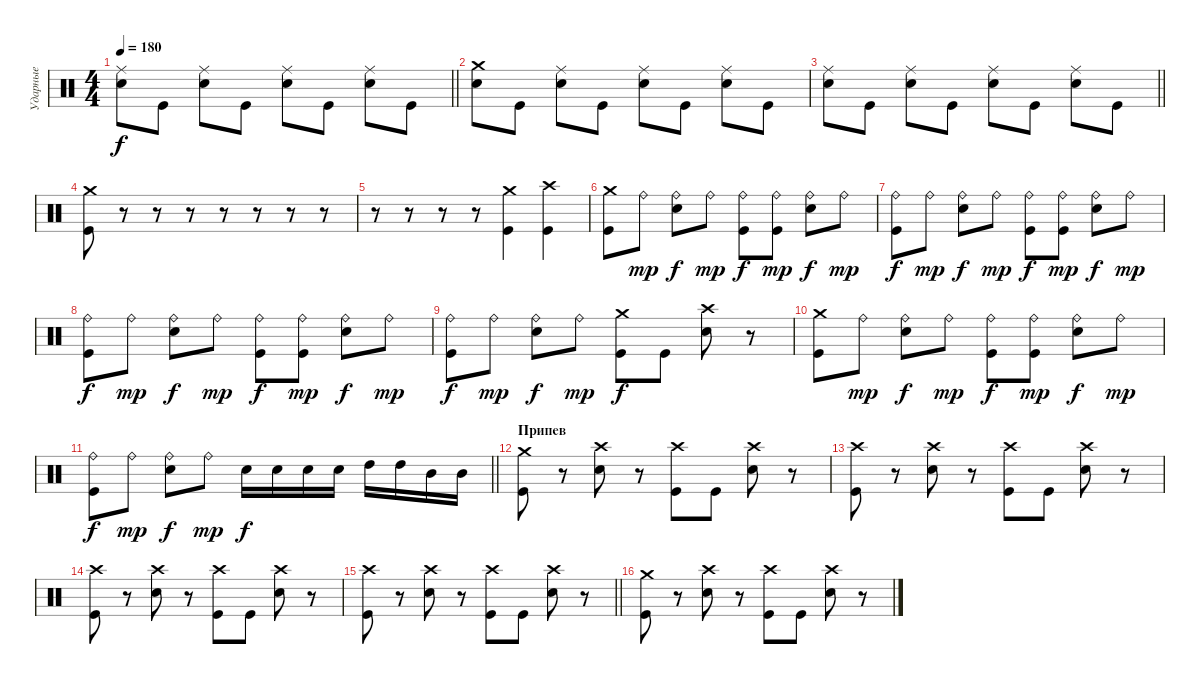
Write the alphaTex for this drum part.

\track ("Ударные" "Ударные") {instrument percussion}
\staff {score}
\articulation defaults
\ts (4 4)
\tempo 180
\clef neutral
\barLineRight lightlight
\ks c
("Ride (middle)" "Electric Snare (hit)").8{dy f} "Kick (hit)".8 ("Ride (middle)" "Electric Snare (hit)").8 "Kick (hit)".8 ("Ride (middle)" "Electric Snare (hit)").8 "Kick (hit)".8 ("Ride (middle)" "Electric Snare (hit)").8 "Kick (hit)".8 |
("Crash medium (hit)" "Electric Snare (hit)").8 "Kick (hit)".8 ("Ride (middle)" "Electric Snare (hit)").8 "Kick (hit)".8 ("Ride (middle)" "Electric Snare (hit)").8 "Kick (hit)".8 ("Ride (middle)" "Electric Snare (hit)").8 "Kick (hit)".8 |
\barLineRight lightlight
("Ride (middle)" "Electric Snare (hit)").8 "Kick (hit)".8 ("Ride (middle)" "Electric Snare (hit)").8 "Kick (hit)".8 ("Ride (middle)" "Electric Snare (hit)").8 "Kick (hit)".8 ("Ride (middle)" "Electric Snare (hit)").8 "Kick (hit)".8 |
\section ("" " ")
("Crash medium (hit)" "Kick (hit)").8 r.8 r.8 r.8 r.8 r.8 r.8 r.8 |
r.8 r.8 r.8 r.8 ("Crash medium (hit)" "Kick (hit)").4 ("Crash high (hit)" "Kick (hit)").4 |
("Crash medium (hit)" "Kick (hit)").8 "Ride (bell)".8{dy mp} ("Ride (bell)" "Electric Snare (hit)").8{dy f} "Ride (bell)".8{dy mp} ("Ride (bell)" "Kick (hit)").8{dy f} ("Ride (bell)" "Kick (hit)").8{dy mp} ("Ride (bell)" "Electric Snare (hit)").8{dy f} "Ride (bell)".8{dy mp} |
("Ride (bell)" "Kick (hit)").8{dy f} "Ride (bell)".8{dy mp} ("Ride (bell)" "Electric Snare (hit)").8{dy f} "Ride (bell)".8{dy mp} ("Ride (bell)" "Kick (hit)").8{dy f} ("Ride (bell)" "Kick (hit)").8{dy mp} ("Ride (bell)" "Electric Snare (hit)").8{dy f} "Ride (bell)".8{dy mp} |
("Ride (bell)" "Kick (hit)").8{dy f} "Ride (bell)".8{dy mp} ("Ride (bell)" "Electric Snare (hit)").8{dy f} "Ride (bell)".8{dy mp} ("Ride (bell)" "Kick (hit)").8{dy f} ("Ride (bell)" "Kick (hit)").8{dy mp} ("Ride (bell)" "Electric Snare (hit)").8{dy f} "Ride (bell)".8{dy mp} |
("Ride (bell)" "Kick (hit)").8{dy f} "Ride (bell)".8{dy mp} ("Ride (bell)" "Electric Snare (hit)").8{dy f} "Ride (bell)".8{dy mp} ("Crash medium (hit)" "Kick (hit)").8{dy f} "Kick (hit)".8 ("Crash high (hit)" "Electric Snare (hit)").8 r.8 |
("Crash medium (hit)" "Kick (hit)").8 "Ride (bell)".8{dy mp} ("Ride (bell)" "Electric Snare (hit)").8{dy f} "Ride (bell)".8{dy mp} ("Ride (bell)" "Kick (hit)").8{dy f} ("Ride (bell)" "Kick (hit)").8{dy mp} ("Ride (bell)" "Electric Snare (hit)").8{dy f} "Ride (bell)".8{dy mp} |
\barLineRight lightlight
("Ride (bell)" "Kick (hit)").8{dy f} "Ride (bell)".8{dy mp} ("Ride (bell)" "Electric Snare (hit)").8{dy f} "Ride (bell)".8{dy mp} "Electric Snare (hit)".16{dy f} "Electric Snare (hit)".16 "Electric Snare (hit)".16 "Electric Snare (hit)".16 "High Tom (hit)".16 "High Tom (hit)".16 "Mid Tom (hit)".16 "Mid Tom (hit)".16 |
\section ("" "Припев")
("Crash medium (hit)" "Kick (hit)").8 r.8 ("Crash high (hit)" "Electric Snare (hit)").8 r.8 ("Crash high (hit)" "Kick (hit)").8 "Kick (hit)".8 ("Crash high (hit)" "Electric Snare (hit)").8 r.8 |
("Crash high (hit)" "Kick (hit)").8 r.8 ("Crash high (hit)" "Electric Snare (hit)").8 r.8 ("Crash high (hit)" "Kick (hit)").8 "Kick (hit)".8 ("Crash high (hit)" "Electric Snare (hit)").8 r.8 |
("Crash high (hit)" "Kick (hit)").8 r.8 ("Crash high (hit)" "Electric Snare (hit)").8 r.8 ("Crash high (hit)" "Kick (hit)").8 "Kick (hit)".8 ("Crash high (hit)" "Electric Snare (hit)").8 r.8 |
\barLineRight lightlight
("Crash high (hit)" "Kick (hit)").8 r.8 ("Crash high (hit)" "Electric Snare (hit)").8 r.8 ("Crash high (hit)" "Kick (hit)").8 "Kick (hit)".8 ("Crash high (hit)" "Electric Snare (hit)").8 r.8 |
("Crash medium (hit)" "Kick (hit)").8 r.8 ("Crash high (hit)" "Electric Snare (hit)").8 r.8 ("Crash high (hit)" "Kick (hit)").8 "Kick (hit)".8 ("Crash high (hit)" "Electric Snare (hit)").8 r.8
